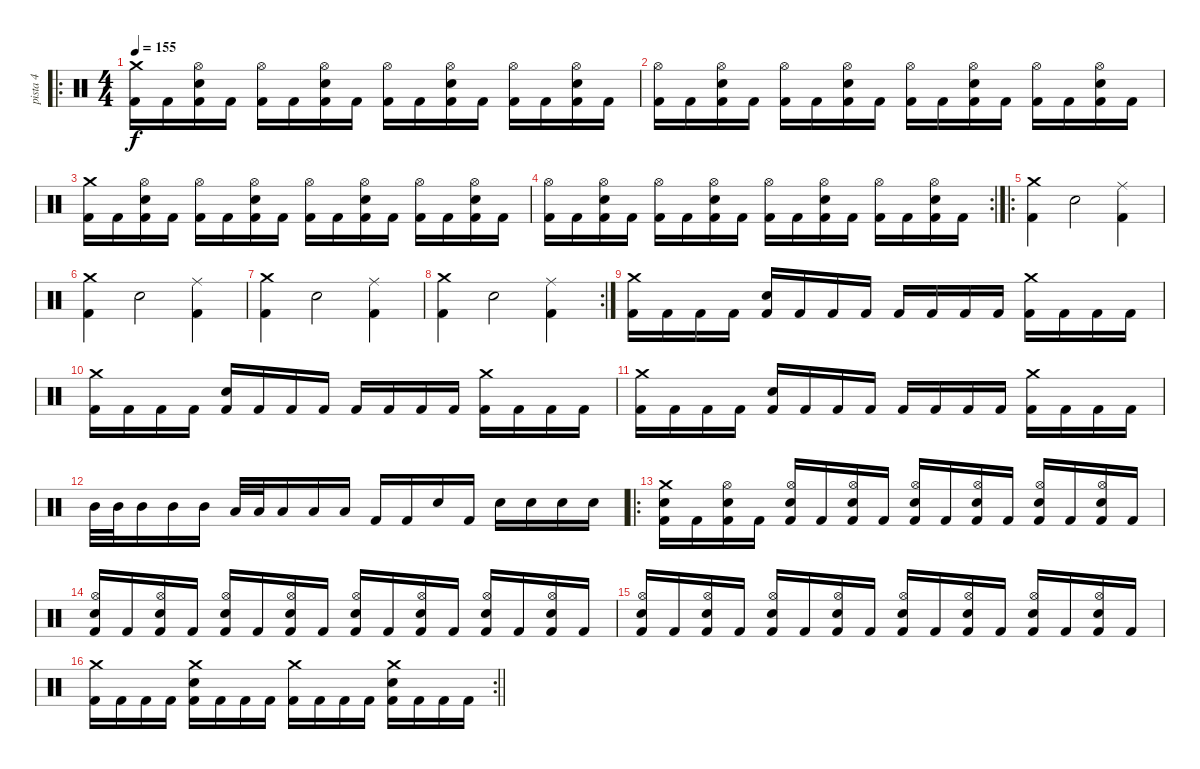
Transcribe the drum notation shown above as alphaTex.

\track ("pista 4" "pista 4") {instrument percussion}
\staff {score}
\articulation defaults
\ro
\ts (4 4)
\tempo 155
\clef neutral
\ks c
("Crash medium (hit)" "Kick (hit) 2").16{dy f} "Kick (hit) 2".16 ("Hi-Hat (open)" "Snare (hit) 2" "Kick (hit) 2").16 "Kick (hit) 2".16 ("Hi-Hat (open)" "Kick (hit) 2").16 "Kick (hit) 2".16 ("Hi-Hat (open)" "Snare (hit) 2" "Kick (hit) 2").16 "Kick (hit) 2".16 ("Hi-Hat (open)" "Kick (hit) 2").16 "Kick (hit) 2".16 ("Hi-Hat (open)" "Snare (hit) 2" "Kick (hit) 2").16 "Kick (hit) 2".16 ("Hi-Hat (open)" "Kick (hit) 2").16 "Kick (hit) 2".16 ("Hi-Hat (open)" "Snare (hit) 2" "Kick (hit) 2").16 "Kick (hit) 2".16 |
("Hi-Hat (open)" "Kick (hit) 2").16 "Kick (hit) 2".16 ("Hi-Hat (open)" "Snare (hit) 2" "Kick (hit) 2").16 "Kick (hit) 2".16 ("Hi-Hat (open)" "Kick (hit) 2").16 "Kick (hit) 2".16 ("Hi-Hat (open)" "Snare (hit) 2" "Kick (hit) 2").16 "Kick (hit) 2".16 ("Hi-Hat (open)" "Kick (hit) 2").16 "Kick (hit) 2".16 ("Hi-Hat (open)" "Snare (hit) 2" "Kick (hit) 2").16 "Kick (hit) 2".16 ("Hi-Hat (open)" "Kick (hit) 2").16 "Kick (hit) 2".16 ("Hi-Hat (open)" "Snare (hit) 2" "Kick (hit) 2").16 "Kick (hit) 2".16 |
("Crash medium (hit)" "Kick (hit) 2").16 "Kick (hit) 2".16 ("Hi-Hat (open)" "Snare (hit) 2" "Kick (hit) 2").16 "Kick (hit) 2".16 ("Hi-Hat (open)" "Kick (hit) 2").16 "Kick (hit) 2".16 ("Hi-Hat (open)" "Snare (hit) 2" "Kick (hit) 2").16 "Kick (hit) 2".16 ("Hi-Hat (open)" "Kick (hit) 2").16 "Kick (hit) 2".16 ("Hi-Hat (open)" "Snare (hit) 2" "Kick (hit) 2").16 "Kick (hit) 2".16 ("Hi-Hat (open)" "Kick (hit) 2").16 "Kick (hit) 2".16 ("Hi-Hat (open)" "Snare (hit) 2" "Kick (hit) 2").16 "Kick (hit) 2".16 |
\rc 2
("Hi-Hat (open)" "Kick (hit) 2").16 "Kick (hit) 2".16 ("Hi-Hat (open)" "Snare (hit) 2" "Kick (hit) 2").16 "Kick (hit) 2".16 ("Hi-Hat (open)" "Kick (hit) 2").16 "Kick (hit) 2".16 ("Hi-Hat (open)" "Snare (hit) 2" "Kick (hit) 2").16 "Kick (hit) 2".16 ("Hi-Hat (open)" "Kick (hit) 2").16 "Kick (hit) 2".16 ("Hi-Hat (open)" "Snare (hit) 2" "Kick (hit) 2").16 "Kick (hit) 2".16 ("Hi-Hat (open)" "Kick (hit) 2").16 "Kick (hit) 2".16 ("Hi-Hat (open)" "Snare (hit) 2" "Kick (hit) 2").16 "Kick (hit) 2".16 |
\ro
("Crash medium (hit)" "Kick (hit) 2").4 "Snare (hit) 2".2 ("Ride (middle)" "Kick (hit) 2").4 |
("Crash medium (hit)" "Kick (hit) 2").4 "Snare (hit) 2".2 ("Ride (middle)" "Kick (hit) 2").4 |
("Crash medium (hit)" "Kick (hit) 2").4 "Snare (hit) 2".2 ("Ride (middle)" "Kick (hit) 2").4 |
\rc 2
("Crash medium (hit)" "Kick (hit) 2").4 "Snare (hit) 2".2 ("Ride (middle)" "Kick (hit) 2").4 |
("Crash medium (hit)" "Kick (hit) 2").16 "Kick (hit) 2".16 "Kick (hit) 2".16 "Kick (hit) 2".16 ("Snare (hit) 2" "Kick (hit) 2").16 "Kick (hit) 2".16 "Kick (hit) 2".16 "Kick (hit) 2".16 "Kick (hit) 2".16 "Kick (hit) 2".16 "Kick (hit) 2".16 "Kick (hit) 2".16 ("Crash medium (hit)" "Kick (hit) 2").16 "Kick (hit) 2".16 "Kick (hit) 2".16 "Kick (hit) 2".16 |
("Crash medium (hit)" "Kick (hit) 2").16 "Kick (hit) 2".16 "Kick (hit) 2".16 "Kick (hit) 2".16 ("Snare (hit) 2" "Kick (hit) 2").16 "Kick (hit) 2".16 "Kick (hit) 2".16 "Kick (hit) 2".16 "Kick (hit) 2".16 "Kick (hit) 2".16 "Kick (hit) 2".16 "Kick (hit) 2".16 ("Crash medium (hit)" "Kick (hit) 2").16 "Kick (hit) 2".16 "Kick (hit) 2".16 "Kick (hit) 2".16 |
("Crash medium (hit)" "Kick (hit) 2").16 "Kick (hit) 2".16 "Kick (hit) 2".16 "Kick (hit) 2".16 ("Snare (hit) 2" "Kick (hit) 2").16 "Kick (hit) 2".16 "Kick (hit) 2".16 "Kick (hit) 2".16 "Kick (hit) 2".16 "Kick (hit) 2".16 "Kick (hit) 2".16 "Kick (hit) 2".16 ("Crash medium (hit)" "Kick (hit) 2").16 "Kick (hit) 2".16 "Kick (hit) 2".16 "Kick (hit) 2".16 |
"Mid Tom (hit)".32 "Mid Tom (hit)".32 "Mid Tom (hit)".16 "Mid Tom (hit)".16 "Mid Tom (hit)".16 "Low Tom (hit)".32 "Low Tom (hit)".32 "Low Tom (hit)".16 "Low Tom (hit)".16 "Low Tom (hit)".16 "Kick (hit) 2".16 "Kick (hit) 2".16 "Snare (hit) 2".16 "Kick (hit) 2".16 "Snare (hit) 2".16 "Snare (hit) 2".16 "Snare (hit) 2".16 "Snare (hit) 2".16 |
\ro
("Crash medium (hit)" "Snare (hit) 2" "Kick (hit) 2").16 "Kick (hit) 2".16 ("Hi-Hat (open)" "Snare (hit) 2" "Kick (hit) 2").16 "Kick (hit) 2".16 ("Hi-Hat (open)" "Snare (hit) 2" "Kick (hit) 2").16 "Kick (hit) 2".16 ("Hi-Hat (open)" "Snare (hit) 2" "Kick (hit) 2").16 "Kick (hit) 2".16 ("Hi-Hat (open)" "Snare (hit) 2" "Kick (hit) 2").16 "Kick (hit) 2".16 ("Hi-Hat (open)" "Snare (hit) 2" "Kick (hit) 2").16 "Kick (hit) 2".16 ("Hi-Hat (open)" "Snare (hit) 2" "Kick (hit) 2").16 "Kick (hit) 2".16 ("Hi-Hat (open)" "Snare (hit) 2" "Kick (hit) 2").16 "Kick (hit) 2".16 |
("Hi-Hat (open)" "Snare (hit) 2" "Kick (hit) 2").16 "Kick (hit) 2".16 ("Hi-Hat (open)" "Snare (hit) 2" "Kick (hit) 2").16 "Kick (hit) 2".16 ("Hi-Hat (open)" "Snare (hit) 2" "Kick (hit) 2").16 "Kick (hit) 2".16 ("Hi-Hat (open)" "Snare (hit) 2" "Kick (hit) 2").16 "Kick (hit) 2".16 ("Hi-Hat (open)" "Snare (hit) 2" "Kick (hit) 2").16 "Kick (hit) 2".16 ("Hi-Hat (open)" "Snare (hit) 2" "Kick (hit) 2").16 "Kick (hit) 2".16 ("Hi-Hat (open)" "Snare (hit) 2" "Kick (hit) 2").16 "Kick (hit) 2".16 ("Hi-Hat (open)" "Snare (hit) 2" "Kick (hit) 2").16 "Kick (hit) 2".16 |
("Hi-Hat (open)" "Snare (hit) 2" "Kick (hit) 2").16 "Kick (hit) 2".16 ("Hi-Hat (open)" "Snare (hit) 2" "Kick (hit) 2").16 "Kick (hit) 2".16 ("Hi-Hat (open)" "Snare (hit) 2" "Kick (hit) 2").16 "Kick (hit) 2".16 ("Hi-Hat (open)" "Snare (hit) 2" "Kick (hit) 2").16 "Kick (hit) 2".16 ("Hi-Hat (open)" "Snare (hit) 2" "Kick (hit) 2").16 "Kick (hit) 2".16 ("Hi-Hat (open)" "Snare (hit) 2" "Kick (hit) 2").16 "Kick (hit) 2".16 ("Hi-Hat (open)" "Snare (hit) 2" "Kick (hit) 2").16 "Kick (hit) 2".16 ("Hi-Hat (open)" "Snare (hit) 2" "Kick (hit) 2").16 "Kick (hit) 2".16 |
\rc 2
\barLineRight lightlight
("Crash medium (hit)" "Kick (hit) 2").16 "Kick (hit) 2".16 "Kick (hit) 2".16 "Kick (hit) 2".16 ("Crash medium (hit)" "Snare (hit) 2" "Kick (hit) 2").16 "Kick (hit) 2".16 "Kick (hit) 2".16 "Kick (hit) 2".16 ("Crash medium (hit)" "Kick (hit) 2").16 "Kick (hit) 2".16 "Kick (hit) 2".16 "Kick (hit) 2".16 ("Crash medium (hit)" "Snare (hit) 2" "Kick (hit) 2").16 "Kick (hit) 2".16 "Kick (hit) 2".16 "Kick (hit) 2".16
